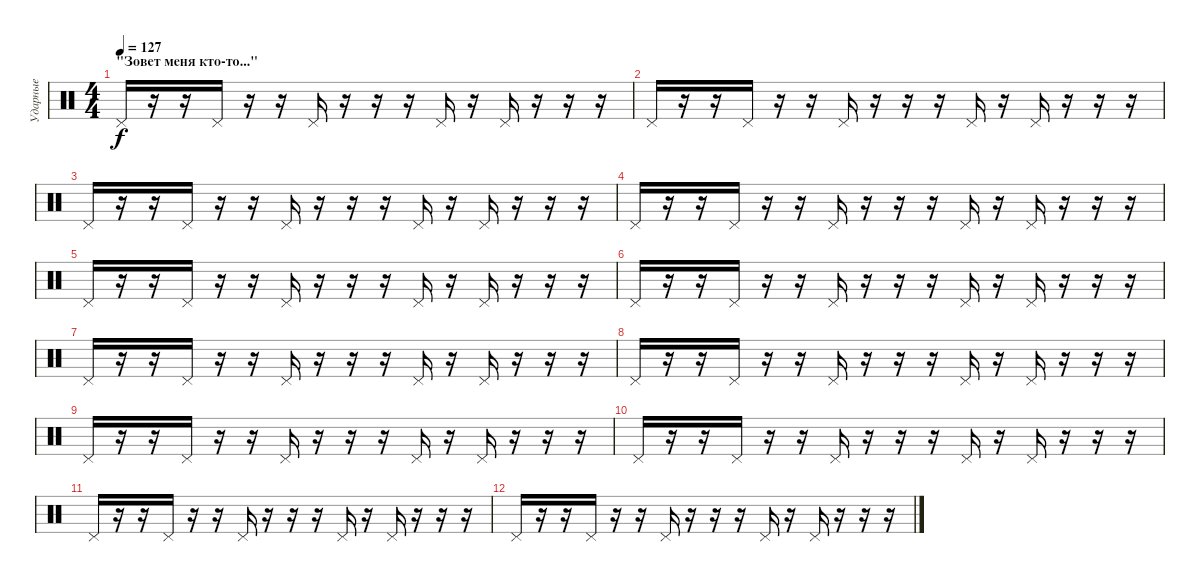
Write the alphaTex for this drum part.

\track ("Ударные" "Ударные") {instrument percussion}
\staff {score}
\articulation defaults
\ts (4 4)
\section ("" "\"Зовет меня кто-то...\"")
\tempo 127
\clef neutral
\ks c "Pedal Hi-Hat (hit)".16{dy f}
r.16 r.16 "Pedal Hi-Hat (hit)".16 r.16 r.16 "Pedal Hi-Hat (hit)".16 r.16 r.16 r.16 "Pedal Hi-Hat (hit)".16 r.16 "Pedal Hi-Hat (hit)".16 r.16 r.16 r.16 |
"Pedal Hi-Hat (hit)".16 r.16 r.16 "Pedal Hi-Hat (hit)".16 r.16 r.16 "Pedal Hi-Hat (hit)".16 r.16 r.16 r.16 "Pedal Hi-Hat (hit)".16 r.16 "Pedal Hi-Hat (hit)".16 r.16 r.16 r.16 |
"Pedal Hi-Hat (hit)".16 r.16 r.16 "Pedal Hi-Hat (hit)".16 r.16 r.16 "Pedal Hi-Hat (hit)".16 r.16 r.16 r.16 "Pedal Hi-Hat (hit)".16 r.16 "Pedal Hi-Hat (hit)".16 r.16 r.16 r.16 |
"Pedal Hi-Hat (hit)".16 r.16 r.16 "Pedal Hi-Hat (hit)".16 r.16 r.16 "Pedal Hi-Hat (hit)".16 r.16 r.16 r.16 "Pedal Hi-Hat (hit)".16 r.16 "Pedal Hi-Hat (hit)".16 r.16 r.16 r.16 |
"Pedal Hi-Hat (hit)".16 r.16 r.16 "Pedal Hi-Hat (hit)".16 r.16 r.16 "Pedal Hi-Hat (hit)".16 r.16 r.16 r.16 "Pedal Hi-Hat (hit)".16 r.16 "Pedal Hi-Hat (hit)".16 r.16 r.16 r.16 |
"Pedal Hi-Hat (hit)".16 r.16 r.16 "Pedal Hi-Hat (hit)".16 r.16 r.16 "Pedal Hi-Hat (hit)".16 r.16 r.16 r.16 "Pedal Hi-Hat (hit)".16 r.16 "Pedal Hi-Hat (hit)".16 r.16 r.16 r.16 |
"Pedal Hi-Hat (hit)".16 r.16 r.16 "Pedal Hi-Hat (hit)".16 r.16 r.16 "Pedal Hi-Hat (hit)".16 r.16 r.16 r.16 "Pedal Hi-Hat (hit)".16 r.16 "Pedal Hi-Hat (hit)".16 r.16 r.16 r.16 |
"Pedal Hi-Hat (hit)".16 r.16 r.16 "Pedal Hi-Hat (hit)".16 r.16 r.16 "Pedal Hi-Hat (hit)".16 r.16 r.16 r.16 "Pedal Hi-Hat (hit)".16 r.16 "Pedal Hi-Hat (hit)".16 r.16 r.16 r.16 |
"Pedal Hi-Hat (hit)".16 r.16 r.16 "Pedal Hi-Hat (hit)".16 r.16 r.16 "Pedal Hi-Hat (hit)".16 r.16 r.16 r.16 "Pedal Hi-Hat (hit)".16 r.16 "Pedal Hi-Hat (hit)".16 r.16 r.16 r.16 |
"Pedal Hi-Hat (hit)".16 r.16 r.16 "Pedal Hi-Hat (hit)".16 r.16 r.16 "Pedal Hi-Hat (hit)".16 r.16 r.16 r.16 "Pedal Hi-Hat (hit)".16 r.16 "Pedal Hi-Hat (hit)".16 r.16 r.16 r.16 |
"Pedal Hi-Hat (hit)".16 r.16 r.16 "Pedal Hi-Hat (hit)".16 r.16 r.16 "Pedal Hi-Hat (hit)".16 r.16 r.16 r.16 "Pedal Hi-Hat (hit)".16 r.16 "Pedal Hi-Hat (hit)".16 r.16 r.16 r.16 |
"Pedal Hi-Hat (hit)".16 r.16 r.16 "Pedal Hi-Hat (hit)".16 r.16 r.16 "Pedal Hi-Hat (hit)".16 r.16 r.16 r.16 "Pedal Hi-Hat (hit)".16 r.16 "Pedal Hi-Hat (hit)".16 r.16 r.16 r.16
